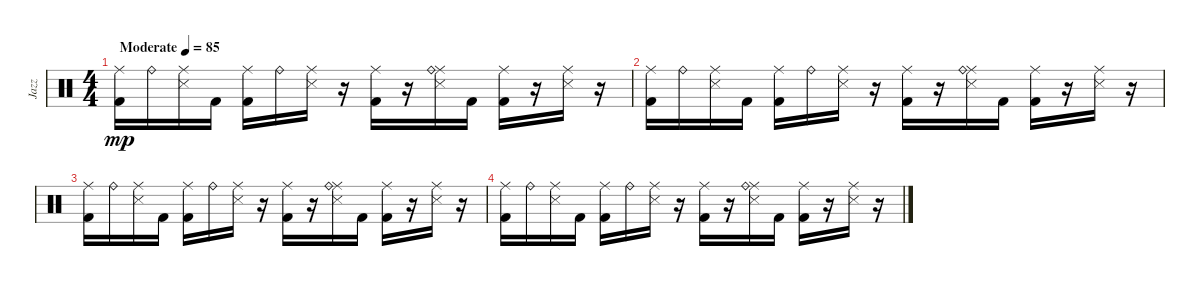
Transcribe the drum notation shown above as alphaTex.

\track ("Jazz" "Jazz") {instrument percussion}
\staff {score}
\articulation defaults
\ts (4 4)
\tempo (85 "Moderate")
\clef neutral
\ks c
("Ride (middle)" "Kick (hit) 2").16{dy mp} "Ride (bell)".16 ("Ride (middle)" "Snare (side stick) 3").16 "Kick (hit) 2".16 ("Ride (middle)" "Kick (hit) 2").16 "Ride (bell)".16 ("Ride (middle)" "Snare (side stick) 3").16 r.16 ("Ride (middle)" "Kick (hit) 2").16 r.16 ("Ride (middle)" "Ride (bell)" "Snare (side stick) 3").16 "Kick (hit) 2".16 ("Ride (middle)" "Kick (hit) 2").16 r.16 ("Ride (middle)" "Snare (side stick) 3").16 r.16 |
("Ride (middle)" "Kick (hit) 2").16 "Ride (bell)".16 ("Ride (middle)" "Snare (side stick) 3").16 "Kick (hit) 2".16 ("Ride (middle)" "Kick (hit) 2").16 "Ride (bell)".16 ("Ride (middle)" "Snare (side stick) 3").16 r.16 ("Ride (middle)" "Kick (hit) 2").16 r.16 ("Ride (middle)" "Ride (bell)" "Snare (side stick) 3").16 "Kick (hit) 2".16 ("Ride (middle)" "Kick (hit) 2").16 r.16 ("Ride (middle)" "Snare (side stick) 3").16 r.16 |
("Ride (middle)" "Kick (hit) 2").16 "Ride (bell)".16 ("Ride (middle)" "Snare (side stick) 3").16 "Kick (hit) 2".16 ("Ride (middle)" "Kick (hit) 2").16 "Ride (bell)".16 ("Ride (middle)" "Snare (side stick) 3").16 r.16 ("Ride (middle)" "Kick (hit) 2").16 r.16 ("Ride (middle)" "Ride (bell)" "Snare (side stick) 3").16 "Kick (hit) 2".16 ("Ride (middle)" "Kick (hit) 2").16 r.16 ("Ride (middle)" "Snare (side stick) 3").16 r.16 |
("Ride (middle)" "Kick (hit) 2").16 "Ride (bell)".16 ("Ride (middle)" "Snare (side stick) 3").16 "Kick (hit) 2".16 ("Ride (middle)" "Kick (hit) 2").16 "Ride (bell)".16 ("Ride (middle)" "Snare (side stick) 3").16 r.16 ("Ride (middle)" "Kick (hit) 2").16 r.16 ("Ride (middle)" "Ride (bell)" "Snare (side stick) 3").16 "Kick (hit) 2".16 ("Ride (middle)" "Kick (hit) 2").16 r.16 ("Ride (middle)" "Snare (side stick) 3").16 r.16
